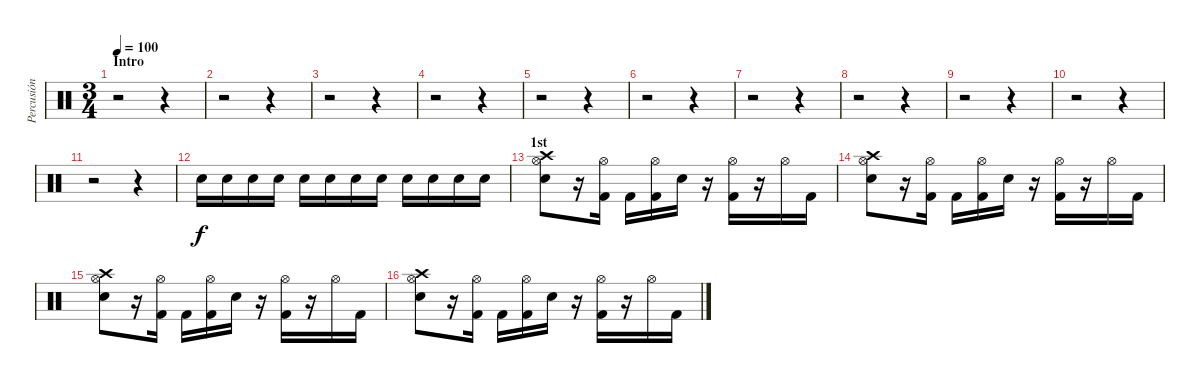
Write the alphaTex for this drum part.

\track ("Percusión" "Percusión") {instrument percussion}
\staff {score}
\articulation defaults
\ts (3 4)
\section ("" "Intro")
\tempo 100
\clef neutral
\ks c
r.2{dy f} r.4 |
r.2 r.4 |
r.2 r.4 |
r.2 r.4 |
r.2 r.4 |
r.2 r.4 |
r.2 r.4 |
r.2 r.4 |
r.2 r.4 |
r.2 r.4 |
r.2 r.4{volume 7} |
"Electric Snare (hit)".16{volume 13} "Electric Snare (hit)".16 "Electric Snare (hit)".16 "Electric Snare (hit)".16 "Electric Snare (hit)".16 "Electric Snare (hit)".16 "Electric Snare (hit)".16 "Electric Snare (hit)".16 "Electric Snare (hit)".16 "Electric Snare (hit)".16 "Electric Snare (hit)".16 "Electric Snare (hit)".16 |
\section ("" "1st")
("Crash high (hit)" "Hi-Hat (open)" "Electric Snare (hit)").8 r.16 ("Hi-Hat (open)" "Kick (hit) 2").16 "Kick (hit) 2".16 ("Hi-Hat (open)" "Kick (hit) 2").16 "Electric Snare (hit)".16 r.16 ("Hi-Hat (open)" "Kick (hit) 2").16 r.16 "Hi-Hat (open)".16 "Kick (hit) 2".16 |
("Crash high (hit)" "Hi-Hat (open)" "Electric Snare (hit)").8 r.16 ("Hi-Hat (open)" "Kick (hit) 2").16 "Kick (hit) 2".16 ("Hi-Hat (open)" "Kick (hit) 2").16 "Electric Snare (hit)".16 r.16 ("Hi-Hat (open)" "Kick (hit) 2").16 r.16 "Hi-Hat (open)".16 "Kick (hit) 2".16 |
("Crash high (hit)" "Hi-Hat (open)" "Electric Snare (hit)").8 r.16 ("Hi-Hat (open)" "Kick (hit) 2").16 "Kick (hit) 2".16 ("Hi-Hat (open)" "Kick (hit) 2").16 "Electric Snare (hit)".16 r.16 ("Hi-Hat (open)" "Kick (hit) 2").16 r.16 "Hi-Hat (open)".16 "Kick (hit) 2".16 |
("Crash high (hit)" "Hi-Hat (open)" "Electric Snare (hit)").8 r.16 ("Hi-Hat (open)" "Kick (hit) 2").16 "Kick (hit) 2".16 ("Hi-Hat (open)" "Kick (hit) 2").16 "Electric Snare (hit)".16 r.16 ("Hi-Hat (open)" "Kick (hit) 2").16 r.16 "Hi-Hat (open)".16 "Kick (hit) 2".16
